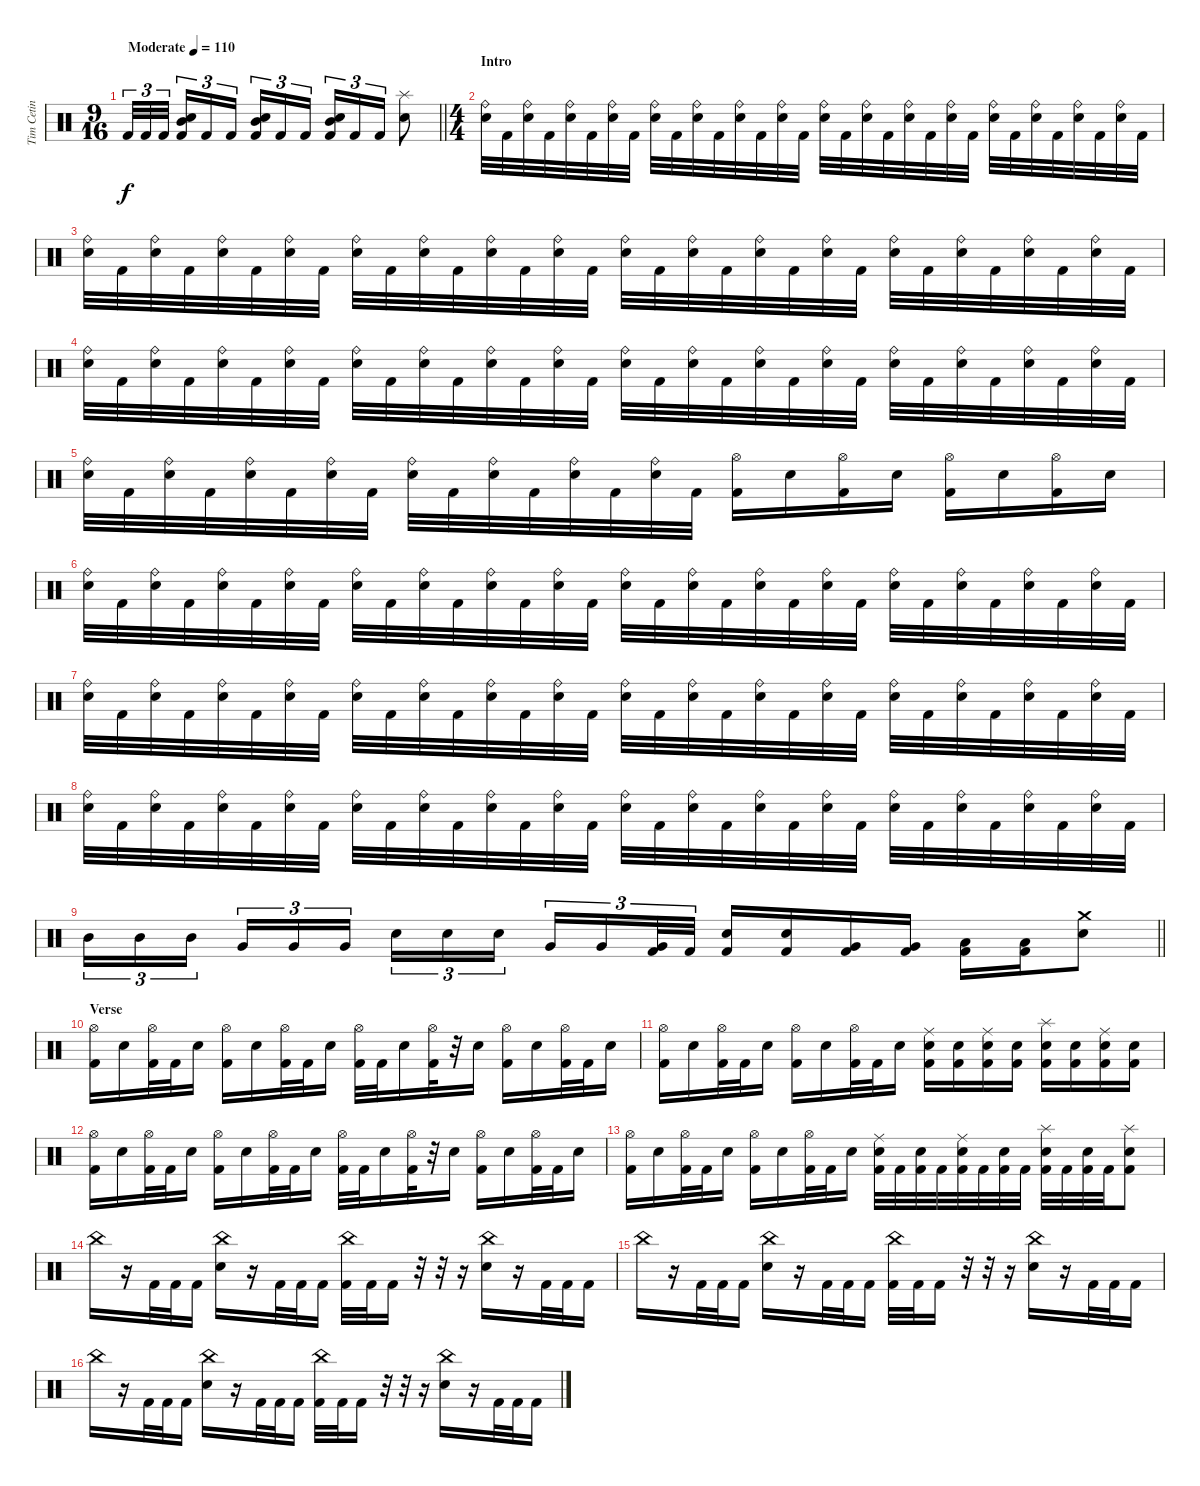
\track ("Tim Cetin" "Tim Cetin") {instrument percussion}
\staff {score}
\articulation defaults
\ts (9 16)
\tempo (110 "Moderate")
\clef neutral
\barLineRight lightlight
\ks c "Kick (hit) 2".32{tu (3 2) dy f} "Kick (hit) 2".32{tu (3 2)} "Kick (hit) 2".32{tu (3 2) beam splitsecondary}
("Mid Tom (hit)" "Snare (hit) 2" "Kick (hit) 2").16{tu (3 2)} "Kick (hit) 2".16{tu (3 2)} "Kick (hit) 2".16{tu (3 2)} ("Mid Tom (hit)" "Snare (hit) 2" "Kick (hit) 2").16{tu (3 2)} "Kick (hit) 2".16{tu (3 2)} "Kick (hit) 2".16{tu (3 2) beam splitsecondary} ("Mid Tom (hit)" "Snare (hit) 2" "Kick (hit) 2").16{tu (3 2)} "Kick (hit) 2".16{tu (3 2)} "Kick (hit) 2".16{tu (3 2)} ("Splash (hit)" "Snare (hit) 2").8 |
\ts (4 4)
\section ("" "Intro")
("Ride (bell)" "Snare (hit) 2").32 "Kick (hit) 2".32 ("Ride (bell)" "Snare (hit) 2").32 "Kick (hit) 2".32 ("Ride (bell)" "Snare (hit) 2").32 "Kick (hit) 2".32 ("Ride (bell)" "Snare (hit) 2").32 "Kick (hit) 2".32 ("Ride (bell)" "Snare (hit) 2").32 "Kick (hit) 2".32 ("Ride (bell)" "Snare (hit) 2").32 "Kick (hit) 2".32 ("Ride (bell)" "Snare (hit) 2").32 "Kick (hit) 2".32 ("Ride (bell)" "Snare (hit) 2").32 "Kick (hit) 2".32 ("Ride (bell)" "Snare (hit) 2").32 "Kick (hit) 2".32 ("Ride (bell)" "Snare (hit) 2").32 "Kick (hit) 2".32 ("Ride (bell)" "Snare (hit) 2").32 "Kick (hit) 2".32 ("Ride (bell)" "Snare (hit) 2").32 "Kick (hit) 2".32 ("Ride (bell)" "Snare (hit) 2").32 "Kick (hit) 2".32 ("Ride (bell)" "Snare (hit) 2").32 "Kick (hit) 2".32 ("Ride (bell)" "Snare (hit) 2").32 "Kick (hit) 2".32 ("Ride (bell)" "Snare (hit) 2").32 "Kick (hit) 2".32 |
("Ride (bell)" "Snare (hit) 2").32 "Kick (hit) 2".32 ("Ride (bell)" "Snare (hit) 2").32 "Kick (hit) 2".32 ("Ride (bell)" "Snare (hit) 2").32 "Kick (hit) 2".32 ("Ride (bell)" "Snare (hit) 2").32 "Kick (hit) 2".32 ("Ride (bell)" "Snare (hit) 2").32 "Kick (hit) 2".32 ("Ride (bell)" "Snare (hit) 2").32 "Kick (hit) 2".32 ("Ride (bell)" "Snare (hit) 2").32 "Kick (hit) 2".32 ("Ride (bell)" "Snare (hit) 2").32 "Kick (hit) 2".32 ("Ride (bell)" "Snare (hit) 2").32 "Kick (hit) 2".32 ("Ride (bell)" "Snare (hit) 2").32 "Kick (hit) 2".32 ("Ride (bell)" "Snare (hit) 2").32 "Kick (hit) 2".32 ("Ride (bell)" "Snare (hit) 2").32 "Kick (hit) 2".32 ("Ride (bell)" "Snare (hit) 2").32 "Kick (hit) 2".32 ("Ride (bell)" "Snare (hit) 2").32 "Kick (hit) 2".32 ("Ride (bell)" "Snare (hit) 2").32 "Kick (hit) 2".32 ("Ride (bell)" "Snare (hit) 2").32 "Kick (hit) 2".32 |
("Ride (bell)" "Snare (hit) 2").32 "Kick (hit) 2".32 ("Ride (bell)" "Snare (hit) 2").32 "Kick (hit) 2".32 ("Ride (bell)" "Snare (hit) 2").32 "Kick (hit) 2".32 ("Ride (bell)" "Snare (hit) 2").32 "Kick (hit) 2".32 ("Ride (bell)" "Snare (hit) 2").32 "Kick (hit) 2".32 ("Ride (bell)" "Snare (hit) 2").32 "Kick (hit) 2".32 ("Ride (bell)" "Snare (hit) 2").32 "Kick (hit) 2".32 ("Ride (bell)" "Snare (hit) 2").32 "Kick (hit) 2".32 ("Ride (bell)" "Snare (hit) 2").32 "Kick (hit) 2".32 ("Ride (bell)" "Snare (hit) 2").32 "Kick (hit) 2".32 ("Ride (bell)" "Snare (hit) 2").32 "Kick (hit) 2".32 ("Ride (bell)" "Snare (hit) 2").32 "Kick (hit) 2".32 ("Ride (bell)" "Snare (hit) 2").32 "Kick (hit) 2".32 ("Ride (bell)" "Snare (hit) 2").32 "Kick (hit) 2".32 ("Ride (bell)" "Snare (hit) 2").32 "Kick (hit) 2".32 ("Ride (bell)" "Snare (hit) 2").32 "Kick (hit) 2".32 |
("Ride (bell)" "Snare (hit) 2").32 "Kick (hit) 2".32 ("Ride (bell)" "Snare (hit) 2").32 "Kick (hit) 2".32 ("Ride (bell)" "Snare (hit) 2").32 "Kick (hit) 2".32 ("Ride (bell)" "Snare (hit) 2").32 "Kick (hit) 2".32 ("Ride (bell)" "Snare (hit) 2").32 "Kick (hit) 2".32 ("Ride (bell)" "Snare (hit) 2").32 "Kick (hit) 2".32 ("Ride (bell)" "Snare (hit) 2").32 "Kick (hit) 2".32 ("Ride (bell)" "Snare (hit) 2").32 "Kick (hit) 2".32 ("Hi-Hat (open)" "Kick (hit) 2").16 "Snare (hit) 2".16 ("Hi-Hat (open)" "Kick (hit) 2").16 "Snare (hit) 2".16 ("Hi-Hat (open)" "Kick (hit) 2").16 "Snare (hit) 2".16 ("Hi-Hat (open)" "Kick (hit) 2").16 "Snare (hit) 2".16 |
("Ride (bell)" "Snare (hit) 2").32 "Kick (hit) 2".32 ("Ride (bell)" "Snare (hit) 2").32 "Kick (hit) 2".32 ("Ride (bell)" "Snare (hit) 2").32 "Kick (hit) 2".32 ("Ride (bell)" "Snare (hit) 2").32 "Kick (hit) 2".32 ("Ride (bell)" "Snare (hit) 2").32 "Kick (hit) 2".32 ("Ride (bell)" "Snare (hit) 2").32 "Kick (hit) 2".32 ("Ride (bell)" "Snare (hit) 2").32 "Kick (hit) 2".32 ("Ride (bell)" "Snare (hit) 2").32 "Kick (hit) 2".32 ("Ride (bell)" "Snare (hit) 2").32 "Kick (hit) 2".32 ("Ride (bell)" "Snare (hit) 2").32 "Kick (hit) 2".32 ("Ride (bell)" "Snare (hit) 2").32 "Kick (hit) 2".32 ("Ride (bell)" "Snare (hit) 2").32 "Kick (hit) 2".32 ("Ride (bell)" "Snare (hit) 2").32 "Kick (hit) 2".32 ("Ride (bell)" "Snare (hit) 2").32 "Kick (hit) 2".32 ("Ride (bell)" "Snare (hit) 2").32 "Kick (hit) 2".32 ("Ride (bell)" "Snare (hit) 2").32 "Kick (hit) 2".32 |
("Ride (bell)" "Snare (hit) 2").32 "Kick (hit) 2".32 ("Ride (bell)" "Snare (hit) 2").32 "Kick (hit) 2".32 ("Ride (bell)" "Snare (hit) 2").32 "Kick (hit) 2".32 ("Ride (bell)" "Snare (hit) 2").32 "Kick (hit) 2".32 ("Ride (bell)" "Snare (hit) 2").32 "Kick (hit) 2".32 ("Ride (bell)" "Snare (hit) 2").32 "Kick (hit) 2".32 ("Ride (bell)" "Snare (hit) 2").32 "Kick (hit) 2".32 ("Ride (bell)" "Snare (hit) 2").32 "Kick (hit) 2".32 ("Ride (bell)" "Snare (hit) 2").32 "Kick (hit) 2".32 ("Ride (bell)" "Snare (hit) 2").32 "Kick (hit) 2".32 ("Ride (bell)" "Snare (hit) 2").32 "Kick (hit) 2".32 ("Ride (bell)" "Snare (hit) 2").32 "Kick (hit) 2".32 ("Ride (bell)" "Snare (hit) 2").32 "Kick (hit) 2".32 ("Ride (bell)" "Snare (hit) 2").32 "Kick (hit) 2".32 ("Ride (bell)" "Snare (hit) 2").32 "Kick (hit) 2".32 ("Ride (bell)" "Snare (hit) 2").32 "Kick (hit) 2".32 |
("Ride (bell)" "Snare (hit) 2").32 "Kick (hit) 2".32 ("Ride (bell)" "Snare (hit) 2").32 "Kick (hit) 2".32 ("Ride (bell)" "Snare (hit) 2").32 "Kick (hit) 2".32 ("Ride (bell)" "Snare (hit) 2").32 "Kick (hit) 2".32 ("Ride (bell)" "Snare (hit) 2").32 "Kick (hit) 2".32 ("Ride (bell)" "Snare (hit) 2").32 "Kick (hit) 2".32 ("Ride (bell)" "Snare (hit) 2").32 "Kick (hit) 2".32 ("Ride (bell)" "Snare (hit) 2").32 "Kick (hit) 2".32 ("Ride (bell)" "Snare (hit) 2").32 "Kick (hit) 2".32 ("Ride (bell)" "Snare (hit) 2").32 "Kick (hit) 2".32 ("Ride (bell)" "Snare (hit) 2").32 "Kick (hit) 2".32 ("Ride (bell)" "Snare (hit) 2").32 "Kick (hit) 2".32 ("Ride (bell)" "Snare (hit) 2").32 "Kick (hit) 2".32 ("Ride (bell)" "Snare (hit) 2").32 "Kick (hit) 2".32 ("Ride (bell)" "Snare (hit) 2").32 "Kick (hit) 2".32 ("Ride (bell)" "Snare (hit) 2").32 "Kick (hit) 2".32 |
\barLineRight lightlight "Mid Tom (hit)".16{tu (3 2)} "Mid Tom (hit)".16{tu (3 2)} "Mid Tom (hit)".16{tu (3 2) beam splitsecondary} "Very Low Tom (hit)".16{tu (3 2)} "Very Low Tom (hit)".16{tu (3 2)} "Very Low Tom (hit)".16{tu (3 2)} "Snare (hit) 2".16{tu (3 2)} "Snare (hit) 2".16{tu (3 2)} "Snare (hit) 2".16{tu (3 2) beam splitsecondary} "Very Low Tom (hit)".16{tu (3 2)} "Very Low Tom (hit)".16{tu (3 2)}
("Very Low Tom (hit)" "Kick (hit) 2").32{tu (3 2)} "Kick (hit) 2".32{tu (3 2)} ("Snare (hit) 2" "Kick (hit) 2").16 ("Snare (hit) 2" "Kick (hit) 2").16 ("Very Low Tom (hit)" "Kick (hit) 2").16 ("Very Low Tom (hit)" "Kick (hit) 2").16 ("Low Floor Tom (hit)" "Kick (hit) 2").16 ("Low Floor Tom (hit)" "Kick (hit) 2").16 ("Crash medium (hit)" "Snare (hit) 2").8 |
\section ("" "Verse")
("Hi-Hat (open)" "Kick (hit) 2").16 "Snare (hit) 2".16 ("Hi-Hat (open)" "Kick (hit) 2").32 "Kick (hit) 2".32 "Snare (hit) 2".16 ("Hi-Hat (open)" "Kick (hit) 2").16 "Snare (hit) 2".16 ("Hi-Hat (open)" "Kick (hit) 2").32 "Kick (hit) 2".32 "Snare (hit) 2".16 ("Hi-Hat (open)" "Kick (hit) 2").32 "Kick (hit) 2".32 "Snare (hit) 2".16 ("Hi-Hat (open)" "Kick (hit) 2").32 r.32 "Snare (hit) 2".16 ("Hi-Hat (open)" "Kick (hit) 2").16 "Snare (hit) 2".16 ("Hi-Hat (open)" "Kick (hit) 2").32 "Kick (hit) 2".32 "Snare (hit) 2".16 |
("Hi-Hat (open)" "Kick (hit) 2").16 "Snare (hit) 2".16 ("Hi-Hat (open)" "Kick (hit) 2").32 "Kick (hit) 2".32 "Snare (hit) 2".16 ("Hi-Hat (open)" "Kick (hit) 2").16 "Snare (hit) 2".16 ("Hi-Hat (open)" "Kick (hit) 2").32 "Kick (hit) 2".32 "Snare (hit) 2".16 ("Ride (middle)" "Snare (hit) 2" "Kick (hit) 2").16 ("Snare (hit) 2" "Kick (hit) 2").16 ("Ride (middle)" "Snare (hit) 2" "Kick (hit) 2").16 ("Snare (hit) 2" "Kick (hit) 2").16 ("Splash (hit)" "Snare (hit) 2" "Kick (hit) 2").16 ("Snare (hit) 2" "Kick (hit) 2").16 ("Ride (middle)" "Snare (hit) 2" "Kick (hit) 2").16 ("Snare (hit) 2" "Kick (hit) 2").16 |
("Hi-Hat (open)" "Kick (hit) 2").16 "Snare (hit) 2".16 ("Hi-Hat (open)" "Kick (hit) 2").32 "Kick (hit) 2".32 "Snare (hit) 2".16 ("Hi-Hat (open)" "Kick (hit) 2").16 "Snare (hit) 2".16 ("Hi-Hat (open)" "Kick (hit) 2").32 "Kick (hit) 2".32 "Snare (hit) 2".16 ("Hi-Hat (open)" "Kick (hit) 2").32 "Kick (hit) 2".32 "Snare (hit) 2".16 ("Hi-Hat (open)" "Kick (hit) 2").32 r.32 "Snare (hit) 2".16 ("Hi-Hat (open)" "Kick (hit) 2").16 "Snare (hit) 2".16 ("Hi-Hat (open)" "Kick (hit) 2").32 "Kick (hit) 2".32 "Snare (hit) 2".16 |
("Hi-Hat (open)" "Kick (hit) 2").16 "Snare (hit) 2".16 ("Hi-Hat (open)" "Kick (hit) 2").32 "Kick (hit) 2".32 "Snare (hit) 2".16 ("Hi-Hat (open)" "Kick (hit) 2").16 "Snare (hit) 2".16 ("Hi-Hat (open)" "Kick (hit) 2").32 "Kick (hit) 2".32 "Snare (hit) 2".16 ("Ride (middle)" "Snare (hit) 2" "Kick (hit) 2").32 "Kick (hit) 2".32 ("Snare (hit) 2" "Kick (hit) 2").32 "Kick (hit) 2".32 ("Ride (middle)" "Snare (hit) 2" "Kick (hit) 2").32 "Kick (hit) 2".32 ("Snare (hit) 2" "Kick (hit) 2").32 "Kick (hit) 2".32 ("Splash (hit)" "Snare (hit) 2" "Kick (hit) 2").32 "Kick (hit) 2".32 ("Snare (hit) 2" "Kick (hit) 2").32 "Kick (hit) 2".32 ("Splash (hit)" "Snare (hit) 2" "Kick (hit) 2").8 |
"China (hit)".16 r.16 "Kick (hit) 2".32 "Kick (hit) 2".32 "Kick (hit) 2".16 ("China (hit)" "Snare (hit) 2").16 r.16 "Kick (hit) 2".32 "Kick (hit) 2".32 "Kick (hit) 2".16 ("China (hit)" "Kick (hit) 2").32 "Kick (hit) 2".32 "Kick (hit) 2".16 r.32 r.32 r.16 ("China (hit)" "Snare (hit) 2").16 r.16 "Kick (hit) 2".32 "Kick (hit) 2".32 "Kick (hit) 2".16 |
"China (hit)".16 r.16 "Kick (hit) 2".32 "Kick (hit) 2".32 "Kick (hit) 2".16 ("China (hit)" "Snare (hit) 2").16 r.16 "Kick (hit) 2".32 "Kick (hit) 2".32 "Kick (hit) 2".16 ("China (hit)" "Kick (hit) 2").32 "Kick (hit) 2".32 "Kick (hit) 2".16 r.32 r.32 r.16 ("China (hit)" "Snare (hit) 2").16 r.16 "Kick (hit) 2".32 "Kick (hit) 2".32 "Kick (hit) 2".16 |
"China (hit)".16 r.16 "Kick (hit) 2".32 "Kick (hit) 2".32 "Kick (hit) 2".16 ("China (hit)" "Snare (hit) 2").16 r.16 "Kick (hit) 2".32 "Kick (hit) 2".32 "Kick (hit) 2".16 ("China (hit)" "Kick (hit) 2").32 "Kick (hit) 2".32 "Kick (hit) 2".16 r.32 r.32 r.16 ("China (hit)" "Snare (hit) 2").16 r.16 "Kick (hit) 2".32 "Kick (hit) 2".32 "Kick (hit) 2".16
